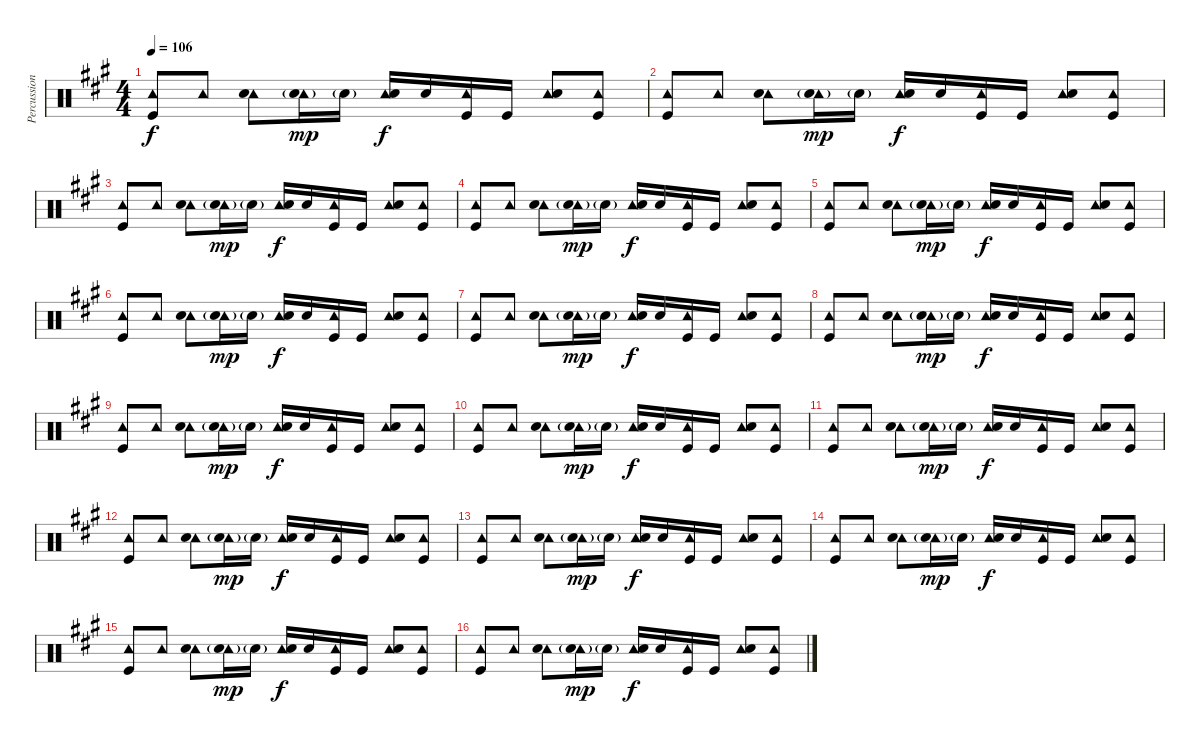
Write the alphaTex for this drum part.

\track ("Percussion" "Percussion") {instrument percussion}
\staff {score}
\articulation defaults
\ts (4 4)
\tempo 106
\clef neutral
\ks f#minor
("Tambourine (hit)" "Kick (hit)").8{dy f} "Tambourine (hit)".8 ("Tambourine (hit)" "Snare (hit) 2").8 ("Tambourine (hit)" "Snare (hit) 2"{g}).16{dy mp} "Snare (hit) 2"{g}.16 ("Tambourine (hit)" "Snare (hit) 2").16{dy f} "Snare (hit) 2".16 ("Tambourine (hit)" "Kick (hit)").16 "Kick (hit)".16 ("Tambourine (hit)" "Snare (hit) 2").8 ("Tambourine (hit)" "Kick (hit)").8 |
("Tambourine (hit)" "Kick (hit)").8 "Tambourine (hit)".8 ("Tambourine (hit)" "Snare (hit) 2").8 ("Tambourine (hit)" "Snare (hit) 2"{g}).16{dy mp} "Snare (hit) 2"{g}.16 ("Tambourine (hit)" "Snare (hit) 2").16{dy f} "Snare (hit) 2".16 ("Tambourine (hit)" "Kick (hit)").16 "Kick (hit)".16 ("Tambourine (hit)" "Snare (hit) 2").8 ("Tambourine (hit)" "Kick (hit)").8 |
("Tambourine (hit)" "Kick (hit)").8 "Tambourine (hit)".8 ("Tambourine (hit)" "Snare (hit) 2").8 ("Tambourine (hit)" "Snare (hit) 2"{g}).16{dy mp} "Snare (hit) 2"{g}.16 ("Tambourine (hit)" "Snare (hit) 2").16{dy f} "Snare (hit) 2".16 ("Tambourine (hit)" "Kick (hit)").16 "Kick (hit)".16 ("Tambourine (hit)" "Snare (hit) 2").8 ("Tambourine (hit)" "Kick (hit)").8 |
("Tambourine (hit)" "Kick (hit)").8 "Tambourine (hit)".8 ("Tambourine (hit)" "Snare (hit) 2").8 ("Tambourine (hit)" "Snare (hit) 2"{g}).16{dy mp} "Snare (hit) 2"{g}.16 ("Tambourine (hit)" "Snare (hit) 2").16{dy f} "Snare (hit) 2".16 ("Tambourine (hit)" "Kick (hit)").16 "Kick (hit)".16 ("Tambourine (hit)" "Snare (hit) 2").8 ("Tambourine (hit)" "Kick (hit)").8 |
("Tambourine (hit)" "Kick (hit)").8 "Tambourine (hit)".8 ("Tambourine (hit)" "Snare (hit) 2").8 ("Tambourine (hit)" "Snare (hit) 2"{g}).16{dy mp} "Snare (hit) 2"{g}.16 ("Tambourine (hit)" "Snare (hit) 2").16{dy f} "Snare (hit) 2".16 ("Tambourine (hit)" "Kick (hit)").16 "Kick (hit)".16 ("Tambourine (hit)" "Snare (hit) 2").8 ("Tambourine (hit)" "Kick (hit)").8 |
("Tambourine (hit)" "Kick (hit)").8 "Tambourine (hit)".8 ("Tambourine (hit)" "Snare (hit) 2").8 ("Tambourine (hit)" "Snare (hit) 2"{g}).16{dy mp} "Snare (hit) 2"{g}.16 ("Tambourine (hit)" "Snare (hit) 2").16{dy f} "Snare (hit) 2".16 ("Tambourine (hit)" "Kick (hit)").16 "Kick (hit)".16 ("Tambourine (hit)" "Snare (hit) 2").8 ("Tambourine (hit)" "Kick (hit)").8 |
("Tambourine (hit)" "Kick (hit)").8 "Tambourine (hit)".8 ("Tambourine (hit)" "Snare (hit) 2").8 ("Tambourine (hit)" "Snare (hit) 2"{g}).16{dy mp} "Snare (hit) 2"{g}.16 ("Tambourine (hit)" "Snare (hit) 2").16{dy f} "Snare (hit) 2".16 ("Tambourine (hit)" "Kick (hit)").16 "Kick (hit)".16 ("Tambourine (hit)" "Snare (hit) 2").8 ("Tambourine (hit)" "Kick (hit)").8 |
("Tambourine (hit)" "Kick (hit)").8 "Tambourine (hit)".8 ("Tambourine (hit)" "Snare (hit) 2").8 ("Tambourine (hit)" "Snare (hit) 2"{g}).16{dy mp} "Snare (hit) 2"{g}.16 ("Tambourine (hit)" "Snare (hit) 2").16{dy f} "Snare (hit) 2".16 ("Tambourine (hit)" "Kick (hit)").16 "Kick (hit)".16 ("Tambourine (hit)" "Snare (hit) 2").8 ("Tambourine (hit)" "Kick (hit)").8 |
("Tambourine (hit)" "Kick (hit)").8 "Tambourine (hit)".8 ("Tambourine (hit)" "Snare (hit) 2").8 ("Tambourine (hit)" "Snare (hit) 2"{g}).16{dy mp} "Snare (hit) 2"{g}.16 ("Tambourine (hit)" "Snare (hit) 2").16{dy f} "Snare (hit) 2".16 ("Tambourine (hit)" "Kick (hit)").16 "Kick (hit)".16 ("Tambourine (hit)" "Snare (hit) 2").8 ("Tambourine (hit)" "Kick (hit)").8 |
("Tambourine (hit)" "Kick (hit)").8 "Tambourine (hit)".8 ("Tambourine (hit)" "Snare (hit) 2").8 ("Tambourine (hit)" "Snare (hit) 2"{g}).16{dy mp} "Snare (hit) 2"{g}.16 ("Tambourine (hit)" "Snare (hit) 2").16{dy f} "Snare (hit) 2".16 ("Tambourine (hit)" "Kick (hit)").16 "Kick (hit)".16 ("Tambourine (hit)" "Snare (hit) 2").8 ("Tambourine (hit)" "Kick (hit)").8 |
("Tambourine (hit)" "Kick (hit)").8 "Tambourine (hit)".8 ("Tambourine (hit)" "Snare (hit) 2").8 ("Tambourine (hit)" "Snare (hit) 2"{g}).16{dy mp} "Snare (hit) 2"{g}.16 ("Tambourine (hit)" "Snare (hit) 2").16{dy f} "Snare (hit) 2".16 ("Tambourine (hit)" "Kick (hit)").16 "Kick (hit)".16 ("Tambourine (hit)" "Snare (hit) 2").8 ("Tambourine (hit)" "Kick (hit)").8 |
("Tambourine (hit)" "Kick (hit)").8 "Tambourine (hit)".8 ("Tambourine (hit)" "Snare (hit) 2").8 ("Tambourine (hit)" "Snare (hit) 2"{g}).16{dy mp} "Snare (hit) 2"{g}.16 ("Tambourine (hit)" "Snare (hit) 2").16{dy f} "Snare (hit) 2".16 ("Tambourine (hit)" "Kick (hit)").16 "Kick (hit)".16 ("Tambourine (hit)" "Snare (hit) 2").8 ("Tambourine (hit)" "Kick (hit)").8 |
("Tambourine (hit)" "Kick (hit)").8 "Tambourine (hit)".8 ("Tambourine (hit)" "Snare (hit) 2").8 ("Tambourine (hit)" "Snare (hit) 2"{g}).16{dy mp} "Snare (hit) 2"{g}.16 ("Tambourine (hit)" "Snare (hit) 2").16{dy f} "Snare (hit) 2".16 ("Tambourine (hit)" "Kick (hit)").16 "Kick (hit)".16 ("Tambourine (hit)" "Snare (hit) 2").8 ("Tambourine (hit)" "Kick (hit)").8 |
("Tambourine (hit)" "Kick (hit)").8 "Tambourine (hit)".8 ("Tambourine (hit)" "Snare (hit) 2").8 ("Tambourine (hit)" "Snare (hit) 2"{g}).16{dy mp} "Snare (hit) 2"{g}.16 ("Tambourine (hit)" "Snare (hit) 2").16{dy f} "Snare (hit) 2".16 ("Tambourine (hit)" "Kick (hit)").16 "Kick (hit)".16 ("Tambourine (hit)" "Snare (hit) 2").8 ("Tambourine (hit)" "Kick (hit)").8 |
("Tambourine (hit)" "Kick (hit)").8 "Tambourine (hit)".8 ("Tambourine (hit)" "Snare (hit) 2").8 ("Tambourine (hit)" "Snare (hit) 2"{g}).16{dy mp} "Snare (hit) 2"{g}.16 ("Tambourine (hit)" "Snare (hit) 2").16{dy f} "Snare (hit) 2".16 ("Tambourine (hit)" "Kick (hit)").16 "Kick (hit)".16 ("Tambourine (hit)" "Snare (hit) 2").8 ("Tambourine (hit)" "Kick (hit)").8 |
("Tambourine (hit)" "Kick (hit)").8 "Tambourine (hit)".8 ("Tambourine (hit)" "Snare (hit) 2").8 ("Tambourine (hit)" "Snare (hit) 2"{g}).16{dy mp} "Snare (hit) 2"{g}.16 ("Tambourine (hit)" "Snare (hit) 2").16{dy f} "Snare (hit) 2".16 ("Tambourine (hit)" "Kick (hit)").16 "Kick (hit)".16 ("Tambourine (hit)" "Snare (hit) 2").8 ("Tambourine (hit)" "Kick (hit)").8
